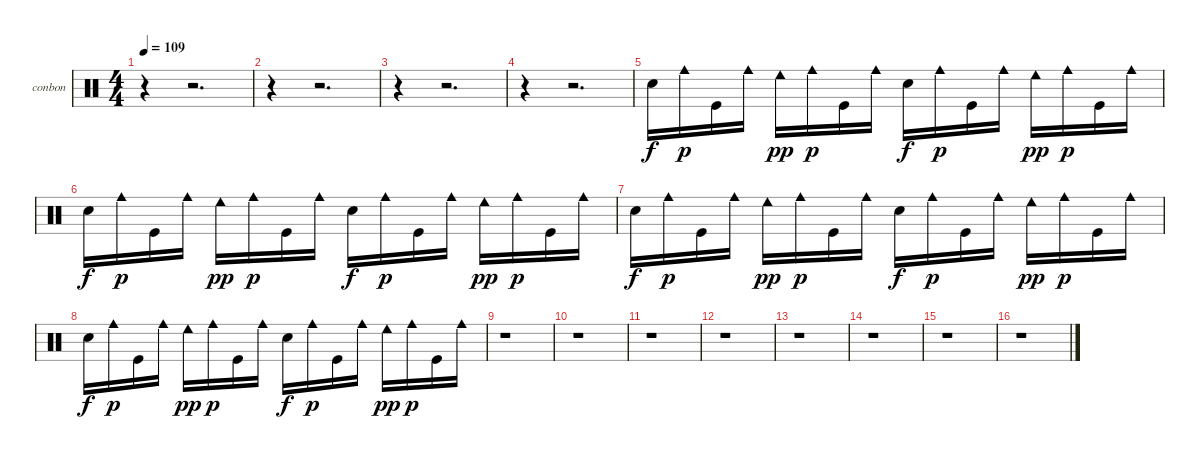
\bracketExtendMode groupsimilarinstruments
\firstSystemTrackNameOrientation horizontal
\otherSystemsTrackNameOrientation horizontal
\track ("Bongos N Congas" "conbon") {instrument percussion}
\staff {score}
\articulation defaults
\ts (4 4)
\tempo 109
\clef neutral
\scale
0.333333
\ks c
r.4{dy p} r.2{d} |
\scale
0.333333 r.4 r.2{d} |
\scale
0.333333 r.4 r.2{d} |
\scale
0.333333 r.4 r.2{d} |
\scale
0.333333 "Snare (hit) 2".16{dy f} "Cowbell medium (hit)".16{dy p} "Kick (hit)".16 "Cowbell medium (hit)".16 "Cowbell low (hit)".16{dy pp} "Cowbell medium (hit)".16{dy p} "Kick (hit)".16 "Cowbell medium (hit)".16 "Snare (hit) 2".16{dy f} "Cowbell medium (hit)".16{dy p} "Kick (hit)".16 "Cowbell medium (hit)".16 "Cowbell low (hit)".16{dy pp} "Cowbell medium (hit)".16{dy p} "Kick (hit)".16 "Cowbell medium (hit)".16 |
\scale
0.333333 "Snare (hit) 2".16{dy f} "Cowbell medium (hit)".16{dy p} "Kick (hit)".16 "Cowbell medium (hit)".16 "Cowbell low (hit)".16{dy pp} "Cowbell medium (hit)".16{dy p} "Kick (hit)".16 "Cowbell medium (hit)".16 "Snare (hit) 2".16{dy f} "Cowbell medium (hit)".16{dy p} "Kick (hit)".16 "Cowbell medium (hit)".16 "Cowbell low (hit)".16{dy pp} "Cowbell medium (hit)".16{dy p} "Kick (hit)".16 "Cowbell medium (hit)".16 |
\scale
0.333333 "Snare (hit) 2".16{dy f} "Cowbell medium (hit)".16{dy p} "Kick (hit)".16 "Cowbell medium (hit)".16 "Cowbell low (hit)".16{dy pp} "Cowbell medium (hit)".16{dy p} "Kick (hit)".16 "Cowbell medium (hit)".16 "Snare (hit) 2".16{dy f} "Cowbell medium (hit)".16{dy p} "Kick (hit)".16 "Cowbell medium (hit)".16 "Cowbell low (hit)".16{dy pp} "Cowbell medium (hit)".16{dy p} "Kick (hit)".16 "Cowbell medium (hit)".16 |
\scale
0.333333 "Snare (hit) 2".16{dy f} "Cowbell medium (hit)".16{dy p} "Kick (hit)".16 "Cowbell medium (hit)".16 "Cowbell low (hit)".16{dy pp} "Cowbell medium (hit)".16{dy p} "Kick (hit)".16 "Cowbell medium (hit)".16 "Snare (hit) 2".16{dy f} "Cowbell medium (hit)".16{dy p} "Kick (hit)".16 "Cowbell medium (hit)".16 "Cowbell low (hit)".16{dy pp} "Cowbell medium (hit)".16{dy p} "Kick (hit)".16 "Cowbell medium (hit)".16 |
\scale
0.333333 r.1 |
\scale
0.333333 r.1 |
\scale
0.333333 r.1 |
\scale
0.333333 r.1 |
\scale
0.333333 r.1 |
\scale
0.333333 r.1 |
\scale
0.333333 r.1 |
\scale
0.333333 r.1
